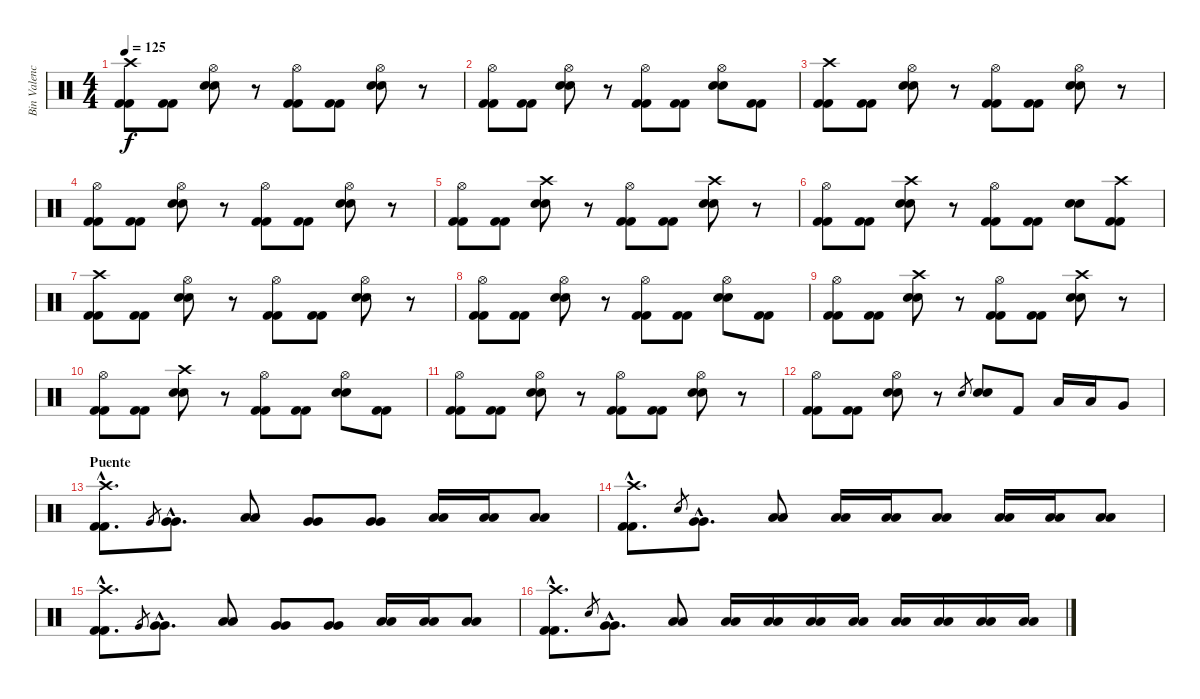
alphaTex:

\track ("Bin Valencia (Bateria)" "Bin Valenc") {instrument percussion}
\staff {score}
\articulation defaults
\ts (4 4)
\tempo 125
\clef neutral
\ks c
("Crash high (hit)" "Kick (hit) 2" "Kick (hit) 2").8{dy f} ("Kick (hit) 2" "Kick (hit) 2").8 ("Hi-Hat (open)" "Snare (hit) 2" "Snare (hit) 2").8 r.8 ("Hi-Hat (open)" "Kick (hit) 2" "Kick (hit) 2").8 ("Kick (hit) 2" "Kick (hit) 2").8 ("Hi-Hat (open)" "Snare (hit) 2" "Snare (hit) 2").8 r.8 |
("Hi-Hat (open)" "Kick (hit) 2" "Kick (hit) 2").8 ("Kick (hit) 2" "Kick (hit) 2").8 ("Hi-Hat (open)" "Snare (hit) 2" "Snare (hit) 2").8 r.8 ("Hi-Hat (open)" "Kick (hit) 2" "Kick (hit) 2").8 ("Kick (hit) 2" "Kick (hit) 2").8 ("Hi-Hat (open)" "Snare (hit) 2" "Snare (hit) 2").8 ("Kick (hit) 2" "Kick (hit) 2").8 |
("Crash high (hit)" "Kick (hit) 2" "Kick (hit) 2").8 ("Kick (hit) 2" "Kick (hit) 2").8 ("Hi-Hat (open)" "Snare (hit) 2" "Snare (hit) 2").8 r.8 ("Hi-Hat (open)" "Kick (hit) 2" "Kick (hit) 2").8 ("Kick (hit) 2" "Kick (hit) 2").8 ("Hi-Hat (open)" "Snare (hit) 2" "Snare (hit) 2").8 r.8 |
("Hi-Hat (open)" "Kick (hit) 2" "Kick (hit) 2").8 ("Kick (hit) 2" "Kick (hit) 2").8 ("Hi-Hat (open)" "Snare (hit) 2" "Snare (hit) 2").8 r.8 ("Hi-Hat (open)" "Kick (hit) 2" "Kick (hit) 2").8 ("Kick (hit) 2" "Kick (hit) 2").8 ("Hi-Hat (open)" "Snare (hit) 2" "Snare (hit) 2").8 r.8 |
("Hi-Hat (open)" "Kick (hit) 2" "Kick (hit) 2").8 ("Kick (hit) 2" "Kick (hit) 2").8 ("Crash high (hit)" "Snare (hit) 2" "Snare (hit) 2").8 r.8 ("Hi-Hat (open)" "Kick (hit) 2" "Kick (hit) 2").8 ("Kick (hit) 2" "Kick (hit) 2").8 ("Crash high (hit)" "Snare (hit) 2" "Snare (hit) 2").8 r.8 |
("Hi-Hat (open)" "Kick (hit) 2" "Kick (hit) 2").8 ("Kick (hit) 2" "Kick (hit) 2").8 ("Crash high (hit)" "Snare (hit) 2" "Snare (hit) 2").8 r.8 ("Hi-Hat (open)" "Kick (hit) 2" "Kick (hit) 2").8 ("Kick (hit) 2" "Kick (hit) 2").8 ("Snare (hit) 2" "Snare (hit) 2").8 ("Crash high (hit)" "Kick (hit) 2" "Kick (hit) 2").8 |
("Crash high (hit)" "Kick (hit) 2" "Kick (hit) 2").8 ("Kick (hit) 2" "Kick (hit) 2").8 ("Hi-Hat (open)" "Snare (hit) 2" "Snare (hit) 2").8 r.8 ("Hi-Hat (open)" "Kick (hit) 2" "Kick (hit) 2").8 ("Kick (hit) 2" "Kick (hit) 2").8 ("Hi-Hat (open)" "Snare (hit) 2" "Snare (hit) 2").8 r.8 |
("Hi-Hat (open)" "Kick (hit) 2" "Kick (hit) 2").8 ("Kick (hit) 2" "Kick (hit) 2").8 ("Hi-Hat (open)" "Snare (hit) 2" "Snare (hit) 2").8 r.8 ("Hi-Hat (open)" "Kick (hit) 2" "Kick (hit) 2").8 ("Kick (hit) 2" "Kick (hit) 2").8 ("Hi-Hat (open)" "Snare (hit) 2" "Snare (hit) 2").8 ("Kick (hit) 2" "Kick (hit) 2").8 |
("Hi-Hat (open)" "Kick (hit) 2" "Kick (hit) 2").8 ("Kick (hit) 2" "Kick (hit) 2").8 ("Crash high (hit)" "Snare (hit) 2" "Snare (hit) 2").8 r.8 ("Hi-Hat (open)" "Kick (hit) 2" "Kick (hit) 2").8 ("Kick (hit) 2" "Kick (hit) 2").8 ("Crash high (hit)" "Snare (hit) 2" "Snare (hit) 2").8 r.8 |
("Hi-Hat (open)" "Kick (hit) 2" "Kick (hit) 2").8 ("Kick (hit) 2" "Kick (hit) 2").8 ("Crash high (hit)" "Snare (hit) 2" "Snare (hit) 2").8 r.8 ("Hi-Hat (open)" "Kick (hit) 2" "Kick (hit) 2").8 ("Kick (hit) 2" "Kick (hit) 2").8 ("Hi-Hat (open)" "Snare (hit) 2" "Snare (hit) 2").8 ("Kick (hit) 2" "Kick (hit) 2").8 |
("Hi-Hat (open)" "Kick (hit) 2" "Kick (hit) 2").8 ("Kick (hit) 2" "Kick (hit) 2").8 ("Hi-Hat (open)" "Snare (hit) 2" "Snare (hit) 2").8 r.8 ("Hi-Hat (open)" "Kick (hit) 2" "Kick (hit) 2").8 ("Kick (hit) 2" "Kick (hit) 2").8 ("Hi-Hat (open)" "Snare (hit) 2" "Snare (hit) 2").8 r.8 |
("Hi-Hat (open)" "Kick (hit) 2" "Kick (hit) 2").8 ("Kick (hit) 2" "Kick (hit) 2").8 ("Hi-Hat (open)" "Snare (hit) 2" "Snare (hit) 2").8 r.8 "Snare (hit) 2".8{gr} ("Snare (hit) 2" "Snare (hit) 2").8 "Kick (hit) 2".8 "Low Tom (hit)".16 "Low Tom (hit)".16 "Very Low Tom (hit)".8 |
\section ("" "Puente")
("Crash high (hit)"{hac} "Kick (hit) 2"{hac} "Kick (hit) 2"{hac}).8{d} "Very Low Tom (hit)".8{gr} ("Very Low Tom (hit)"{hac} "Very Low Tom (hit)"{hac}).8{d} ("Low Tom (hit)" "Low Tom (hit)").8 ("Very Low Tom (hit)" "Very Low Tom (hit)").8 ("Very Low Tom (hit)" "Very Low Tom (hit)").8 ("Low Floor Tom (hit)" "Low Floor Tom (hit)").16 ("Low Floor Tom (hit)" "Low Floor Tom (hit)").16 ("Low Floor Tom (hit)" "Low Floor Tom (hit)").8 |
("Crash high (hit)"{hac} "Kick (hit) 2"{hac} "Kick (hit) 2"{hac}).8{d} "Metronome (bell)".8{gr} ("Very Low Tom (hit)"{hac} "Very Low Tom (hit)"{hac}).8{d} ("Low Tom (hit)" "Low Tom (hit)").8 ("Low Floor Tom (hit)" "Low Floor Tom (hit)").16 ("Low Floor Tom (hit)" "Low Floor Tom (hit)").16 ("Low Floor Tom (hit)" "Low Floor Tom (hit)").8 ("Low Floor Tom (hit)" "Low Floor Tom (hit)").16 ("Low Floor Tom (hit)" "Low Floor Tom (hit)").16 ("Low Floor Tom (hit)" "Low Floor Tom (hit)").8 |
("Crash high (hit)"{hac} "Kick (hit) 2"{hac} "Kick (hit) 2"{hac}).8{d} "Very Low Tom (hit)".8{gr} ("Very Low Tom (hit)"{hac} "Very Low Tom (hit)"{hac}).8{d} ("Low Tom (hit)" "Low Tom (hit)").8 ("Very Low Tom (hit)" "Very Low Tom (hit)").8 ("Very Low Tom (hit)" "Very Low Tom (hit)").8 ("Low Floor Tom (hit)" "Low Floor Tom (hit)").16 ("Low Floor Tom (hit)" "Low Floor Tom (hit)").16 ("Low Floor Tom (hit)" "Low Floor Tom (hit)").8 |
("Crash high (hit)"{hac} "Kick (hit) 2"{hac} "Kick (hit) 2"{hac}).8{d} "Metronome (bell)".8{gr} ("Very Low Tom (hit)"{hac} "Very Low Tom (hit)"{hac}).8{d} ("Low Tom (hit)" "Low Tom (hit)").8 ("Low Floor Tom (hit)" "Low Floor Tom (hit)").16 ("Low Floor Tom (hit)" "Low Floor Tom (hit)").16 ("Low Floor Tom (hit)" "Low Floor Tom (hit)").16 ("Low Floor Tom (hit)" "Low Floor Tom (hit)").16 ("Low Floor Tom (hit)" "Low Floor Tom (hit)").16 ("Low Floor Tom (hit)" "Low Floor Tom (hit)").16 ("Low Floor Tom (hit)" "Low Floor Tom (hit)").16 ("Low Floor Tom (hit)" "Low Floor Tom (hit)").16
